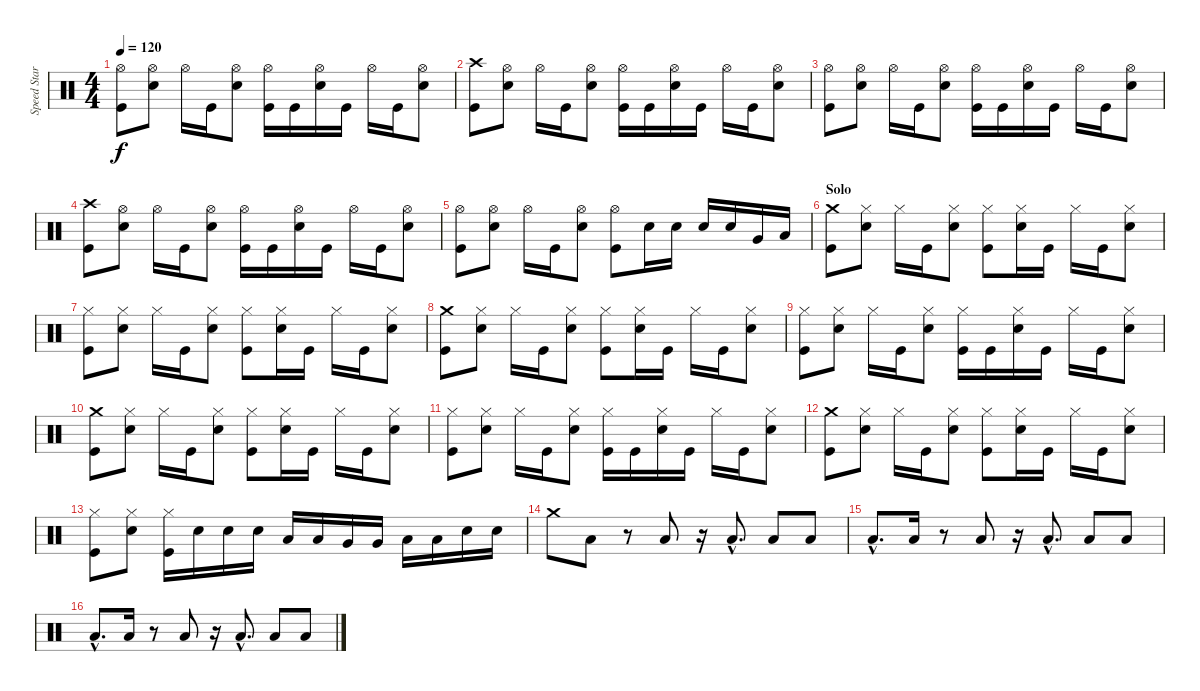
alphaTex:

\track ("Speed Star" "Speed Star") {instrument percussion}
\staff {score}
\articulation defaults
\ts (4 4)
\tempo 120
\clef neutral
\ks c
("Kick (hit)" "Hi-Hat (open)").8{dy f} ("Snare (hit) 2" "Hi-Hat (open)").8 "Hi-Hat (open)".16 "Kick (hit)".16 ("Snare (hit) 2" "Hi-Hat (open)").8 ("Kick (hit)" "Hi-Hat (open)").16 "Kick (hit)".16 ("Snare (hit) 2" "Hi-Hat (open)").16 "Kick (hit)".16 "Hi-Hat (open)".16 "Kick (hit)".16 ("Snare (hit) 2" "Hi-Hat (open)").8 |
("Kick (hit)" "Crash high (hit)").8 ("Snare (hit) 2" "Hi-Hat (open)").8 "Hi-Hat (open)".16 "Kick (hit)".16 ("Snare (hit) 2" "Hi-Hat (open)").8 ("Kick (hit)" "Hi-Hat (open)").16 "Kick (hit)".16 ("Snare (hit) 2" "Hi-Hat (open)").16 "Kick (hit)".16 "Hi-Hat (open)".16 "Kick (hit)".16 ("Snare (hit) 2" "Hi-Hat (open)").8 |
("Kick (hit)" "Hi-Hat (open)").8 ("Snare (hit) 2" "Hi-Hat (open)").8 "Hi-Hat (open)".16 "Kick (hit)".16 ("Snare (hit) 2" "Hi-Hat (open)").8 ("Kick (hit)" "Hi-Hat (open)").16 "Kick (hit)".16 ("Snare (hit) 2" "Hi-Hat (open)").16 "Kick (hit)".16 "Hi-Hat (open)".16 "Kick (hit)".16 ("Snare (hit) 2" "Hi-Hat (open)").8 |
("Kick (hit)" "Crash high (hit)").8 ("Snare (hit) 2" "Hi-Hat (open)").8 "Hi-Hat (open)".16 "Kick (hit)".16 ("Snare (hit) 2" "Hi-Hat (open)").8 ("Kick (hit)" "Hi-Hat (open)").16 "Kick (hit)".16 ("Snare (hit) 2" "Hi-Hat (open)").16 "Kick (hit)".16 "Hi-Hat (open)".16 "Kick (hit)".16 ("Snare (hit) 2" "Hi-Hat (open)").8 |
("Kick (hit)" "Hi-Hat (open)").8 ("Snare (hit) 2" "Hi-Hat (open)").8 "Hi-Hat (open)".16 "Kick (hit)".16 ("Snare (hit) 2" "Hi-Hat (open)").8 ("Kick (hit)" "Hi-Hat (open)").8 "Snare (hit) 2".16 "Snare (hit) 2".16 "Snare (hit) 2".16 "Snare (hit) 2".16 "Very Low Tom (hit)".16 "Low Floor Tom (hit)".16 |
\section ("" "Solo")
("Kick (hit)" "Crash medium (hit)").8 ("Snare (hit) 2" "Hi-Hat (closed)").8 "Hi-Hat (closed)".16 "Kick (hit)".16 ("Snare (hit) 2" "Hi-Hat (closed)").8 ("Kick (hit)" "Hi-Hat (closed)").8 ("Snare (hit) 2" "Hi-Hat (closed)").16 "Kick (hit)".16 "Hi-Hat (closed)".16 "Kick (hit)".16 ("Snare (hit) 2" "Hi-Hat (closed)").8 |
("Kick (hit)" "Hi-Hat (closed)").8 ("Snare (hit) 2" "Hi-Hat (closed)").8 "Hi-Hat (closed)".16 "Kick (hit)".16 ("Snare (hit) 2" "Hi-Hat (closed)").8 ("Kick (hit)" "Hi-Hat (closed)").8 ("Snare (hit) 2" "Hi-Hat (closed)").16 "Kick (hit)".16 "Hi-Hat (closed)".16 "Kick (hit)".16 ("Snare (hit) 2" "Hi-Hat (closed)").8 |
("Kick (hit)" "Crash medium (hit)").8 ("Snare (hit) 2" "Hi-Hat (closed)").8 "Hi-Hat (closed)".16 "Kick (hit)".16 ("Snare (hit) 2" "Hi-Hat (closed)").8 ("Kick (hit)" "Hi-Hat (closed)").8 ("Snare (hit) 2" "Hi-Hat (closed)").16 "Kick (hit)".16 "Hi-Hat (closed)".16 "Kick (hit)".16 ("Snare (hit) 2" "Hi-Hat (closed)").8 |
("Kick (hit)" "Hi-Hat (closed)").8 ("Snare (hit) 2" "Hi-Hat (closed)").8 "Hi-Hat (closed)".16 "Kick (hit)".16 ("Snare (hit) 2" "Hi-Hat (closed)").8 ("Kick (hit)" "Hi-Hat (closed)").16 "Kick (hit)".16 ("Snare (hit) 2" "Hi-Hat (closed)").16 "Kick (hit)".16 "Hi-Hat (closed)".16 "Kick (hit)".16 ("Snare (hit) 2" "Hi-Hat (closed)").8 |
("Kick (hit)" "Crash medium (hit)").8 ("Snare (hit) 2" "Hi-Hat (closed)").8 "Hi-Hat (closed)".16 "Kick (hit)".16 ("Snare (hit) 2" "Hi-Hat (closed)").8 ("Kick (hit)" "Hi-Hat (closed)").8 ("Snare (hit) 2" "Hi-Hat (closed)").16 "Kick (hit)".16 "Hi-Hat (closed)".16 "Kick (hit)".16 ("Snare (hit) 2" "Hi-Hat (closed)").8 |
("Kick (hit)" "Hi-Hat (closed)").8 ("Snare (hit) 2" "Hi-Hat (closed)").8 "Hi-Hat (closed)".16 "Kick (hit)".16 ("Snare (hit) 2" "Hi-Hat (closed)").8 ("Kick (hit)" "Hi-Hat (closed)").16 "Kick (hit)".16 ("Snare (hit) 2" "Hi-Hat (closed)").16 "Kick (hit)".16 "Hi-Hat (closed)".16 "Kick (hit)".16 ("Snare (hit) 2" "Hi-Hat (closed)").8 |
("Kick (hit)" "Crash medium (hit)").8 ("Snare (hit) 2" "Hi-Hat (closed)").8 "Hi-Hat (closed)".16 "Kick (hit)".16 ("Snare (hit) 2" "Hi-Hat (closed)").8 ("Kick (hit)" "Hi-Hat (closed)").8 ("Snare (hit) 2" "Hi-Hat (closed)").16 "Kick (hit)".16 "Hi-Hat (closed)".16 "Kick (hit)".16 ("Snare (hit) 2" "Hi-Hat (closed)").8 |
("Kick (hit)" "Hi-Hat (closed)").8 ("Snare (hit) 2" "Hi-Hat (closed)").8 ("Kick (hit)" "Hi-Hat (closed)").16 "Snare (hit) 2".16 "Snare (hit) 2".16 "Snare (hit) 2".16 "Low Tom (hit)".16 "Low Tom (hit)".16 "Very Low Tom (hit)".16 "Very Low Tom (hit)".16 "Low Floor Tom (hit)".16 "Low Floor Tom (hit)".16 "Snare (hit) 2".16 "Snare (hit) 2".16 |
"Crash medium (hit)".8 "Low Floor Tom (hit)".8 r.8 "Low Floor Tom (hit)".8 r.16 "Low Floor Tom (hit)"{hac}.8{d} "Low Floor Tom (hit)".8 "Low Floor Tom (hit)".8 |
"Low Floor Tom (hit)"{hac}.8{d} "Low Floor Tom (hit)".16 r.8 "Low Floor Tom (hit)".8 r.16 "Low Floor Tom (hit)"{hac}.8{d} "Low Floor Tom (hit)".8 "Low Floor Tom (hit)".8 |
"Low Floor Tom (hit)"{hac}.8{d} "Low Floor Tom (hit)".16 r.8 "Low Floor Tom (hit)".8 r.16 "Low Floor Tom (hit)"{hac}.8{d} "Low Floor Tom (hit)".8 "Low Floor Tom (hit)".8
